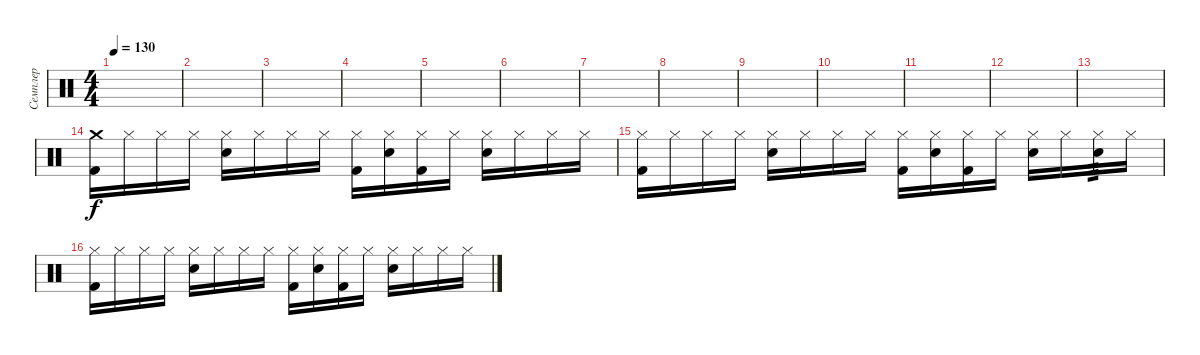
\track ("Семплер" "Семплер") {instrument percussion}
\staff {score}
\articulation defaults
\ts (4 4)
\tempo 130
\clef neutral
\ks c
|
|
|
|
|
|
|
|
|
|
|
|
|
("Crash medium (hit)" "Kick (hit) 2").16 "Hi-Hat (closed)".16 "Hi-Hat (closed)".16 "Hi-Hat (closed)".16 ("Hi-Hat (closed)" "Snare (hit) 2").16 "Hi-Hat (closed)".16 "Hi-Hat (closed)".16 "Hi-Hat (closed)".16 ("Hi-Hat (closed)" "Kick (hit) 2").16 ("Hi-Hat (closed)" "Snare (hit) 2").16 ("Hi-Hat (closed)" "Kick (hit) 2").16 "Hi-Hat (closed)".16 ("Hi-Hat (closed)" "Snare (hit) 2").16 "Hi-Hat (closed)".16 "Hi-Hat (closed)".16 "Hi-Hat (closed)".16 |
("Hi-Hat (closed)" "Kick (hit) 2").16 "Hi-Hat (closed)".16 "Hi-Hat (closed)".16 "Hi-Hat (closed)".16 ("Hi-Hat (closed)" "Snare (hit) 2").16 "Hi-Hat (closed)".16 "Hi-Hat (closed)".16 "Hi-Hat (closed)".16 ("Hi-Hat (closed)" "Kick (hit) 2").16 ("Hi-Hat (closed)" "Snare (hit) 2").16 ("Hi-Hat (closed)" "Kick (hit) 2").16 "Hi-Hat (closed)".16 ("Hi-Hat (closed)" "Snare (hit) 2").16 "Hi-Hat (closed)".16 ("Hi-Hat (closed)" "Snare (hit) 2").16{tp 3} "Hi-Hat (closed)".16 |
("Hi-Hat (closed)" "Kick (hit) 2").16 "Hi-Hat (closed)".16 "Hi-Hat (closed)".16 "Hi-Hat (closed)".16 ("Hi-Hat (closed)" "Snare (hit) 2").16 "Hi-Hat (closed)".16 "Hi-Hat (closed)".16 "Hi-Hat (closed)".16 ("Hi-Hat (closed)" "Kick (hit) 2").16 ("Hi-Hat (closed)" "Snare (hit) 2").16 ("Hi-Hat (closed)" "Kick (hit) 2").16 "Hi-Hat (closed)".16 ("Hi-Hat (closed)" "Snare (hit) 2").16 "Hi-Hat (closed)".16 "Hi-Hat (closed)".16 "Hi-Hat (closed)".16
